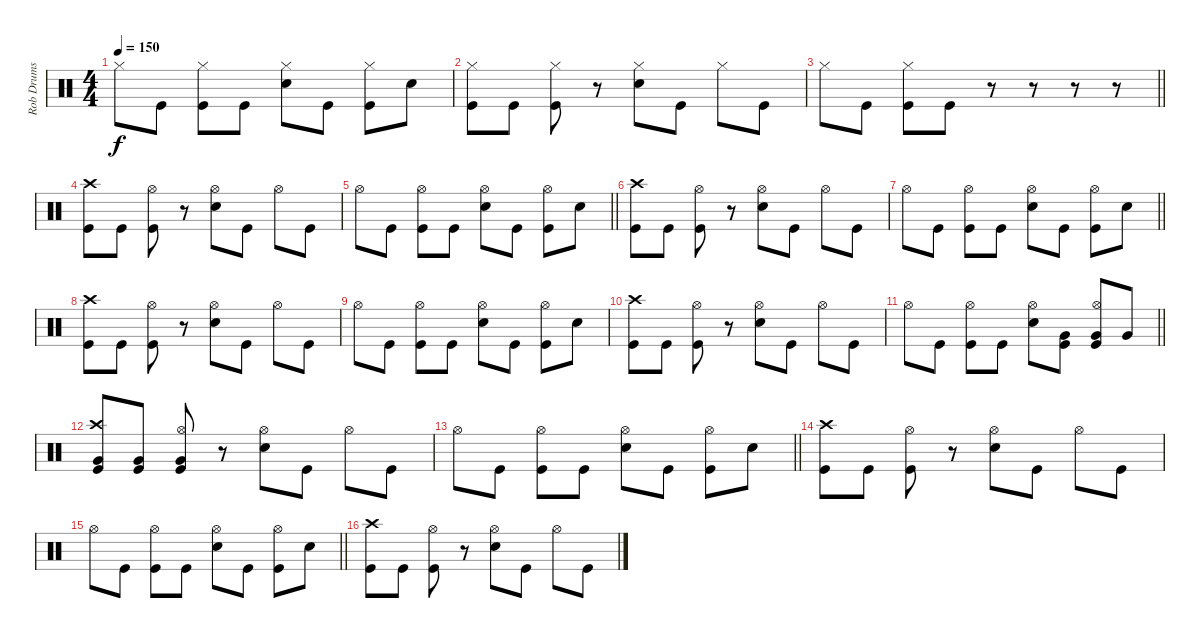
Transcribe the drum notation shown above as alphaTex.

\track ("Rob Drums" "Rob Drums") {instrument percussion}
\staff {score}
\articulation defaults
\ts (4 4)
\tempo 150
\clef neutral
\ks c "Hi-Hat (closed)".8{dy f} "Kick (hit)".8
("Hi-Hat (closed)" "Kick (hit)").8 "Kick (hit)".8 ("Hi-Hat (closed)" "Snare (hit) 2").8 "Kick (hit)".8 ("Hi-Hat (closed)" "Kick (hit)").8 "Snare (hit) 2".8 |
("Hi-Hat (closed)" "Kick (hit)").8 "Kick (hit)".8 ("Hi-Hat (closed)" "Kick (hit)").8 r.8 ("Hi-Hat (closed)" "Snare (hit) 2").8 "Kick (hit)".8 "Hi-Hat (closed)".8 "Kick (hit)".8 |
\barLineRight lightlight "Hi-Hat (closed)".8 "Kick (hit)".8
("Hi-Hat (closed)" "Kick (hit)").8 "Kick (hit)".8 r.8 r.8 r.8 r.8 |
("Crash high (hit)" "Kick (hit)").8 "Kick (hit)".8 ("Hi-Hat (open)" "Kick (hit)").8 r.8 ("Hi-Hat (open)" "Snare (hit) 2").8 "Kick (hit)".8 "Hi-Hat (open)".8 "Kick (hit)".8 |
\barLineRight lightlight "Hi-Hat (open)".8 "Kick (hit)".8
("Hi-Hat (open)" "Kick (hit)").8 "Kick (hit)".8 ("Hi-Hat (open)" "Snare (hit) 2").8 "Kick (hit)".8 ("Hi-Hat (open)" "Kick (hit)").8 "Snare (hit) 2".8 |
("Crash high (hit)" "Kick (hit)").8 "Kick (hit)".8 ("Hi-Hat (open)" "Kick (hit)").8 r.8 ("Hi-Hat (open)" "Snare (hit) 2").8 "Kick (hit)".8 "Hi-Hat (open)".8 "Kick (hit)".8 |
\barLineRight lightlight "Hi-Hat (open)".8 "Kick (hit)".8
("Hi-Hat (open)" "Kick (hit)").8 "Kick (hit)".8 ("Hi-Hat (open)" "Snare (hit) 2").8 "Kick (hit)".8 ("Hi-Hat (open)" "Kick (hit)").8 "Snare (hit) 2".8 |
("Crash high (hit)" "Kick (hit)").8 "Kick (hit)".8 ("Hi-Hat (open)" "Kick (hit)").8 r.8 ("Hi-Hat (open)" "Snare (hit) 2").8 "Kick (hit)".8 "Hi-Hat (open)".8 "Kick (hit)".8 |
"Hi-Hat (open)".8 "Kick (hit)".8 ("Hi-Hat (open)" "Kick (hit)").8 "Kick (hit)".8 ("Hi-Hat (open)" "Snare (hit) 2").8 "Kick (hit)".8 ("Hi-Hat (open)" "Kick (hit)").8 "Snare (hit) 2".8 |
("Crash high (hit)" "Kick (hit)").8 "Kick (hit)".8 ("Hi-Hat (open)" "Kick (hit)").8 r.8 ("Hi-Hat (open)" "Snare (hit) 2").8 "Kick (hit)".8 "Hi-Hat (open)".8 "Kick (hit)".8 |
\barLineRight lightlight "Hi-Hat (open)".8 "Kick (hit)".8
("Hi-Hat (open)" "Kick (hit)").8 "Kick (hit)".8 ("Hi-Hat (open)" "Snare (hit) 2").8 ("Very Low Tom (hit)" "Kick (hit)").8 ("Hi-Hat (open)" "Very Low Tom (hit)" "Kick (hit)").8 "Very Low Tom (hit)".8 |
("Crash high (hit)" "Very Low Tom (hit)" "Kick (hit)").8 ("Very Low Tom (hit)" "Kick (hit)").8 ("Hi-Hat (open)" "Very Low Tom (hit)" "Kick (hit)").8 r.8 ("Hi-Hat (open)" "Snare (hit) 2").8 "Kick (hit)".8 "Hi-Hat (open)".8 "Kick (hit)".8 |
\barLineRight lightlight "Hi-Hat (open)".8 "Kick (hit)".8
("Hi-Hat (open)" "Kick (hit)").8 "Kick (hit)".8 ("Hi-Hat (open)" "Snare (hit) 2").8 "Kick (hit)".8 ("Hi-Hat (open)" "Kick (hit)").8 "Snare (hit) 2".8 |
("Crash high (hit)" "Kick (hit)").8 "Kick (hit)".8 ("Hi-Hat (open)" "Kick (hit)").8 r.8 ("Hi-Hat (open)" "Snare (hit) 2").8 "Kick (hit)".8 "Hi-Hat (open)".8 "Kick (hit)".8 |
\barLineRight lightlight "Hi-Hat (open)".8 "Kick (hit)".8
("Hi-Hat (open)" "Kick (hit)").8 "Kick (hit)".8 ("Hi-Hat (open)" "Snare (hit) 2").8 "Kick (hit)".8 ("Hi-Hat (open)" "Kick (hit)").8 "Snare (hit) 2".8 |
("Crash high (hit)" "Kick (hit)").8 "Kick (hit)".8 ("Hi-Hat (open)" "Kick (hit)").8 r.8 ("Hi-Hat (open)" "Snare (hit) 2").8 "Kick (hit)".8 "Hi-Hat (open)".8 "Kick (hit)".8
